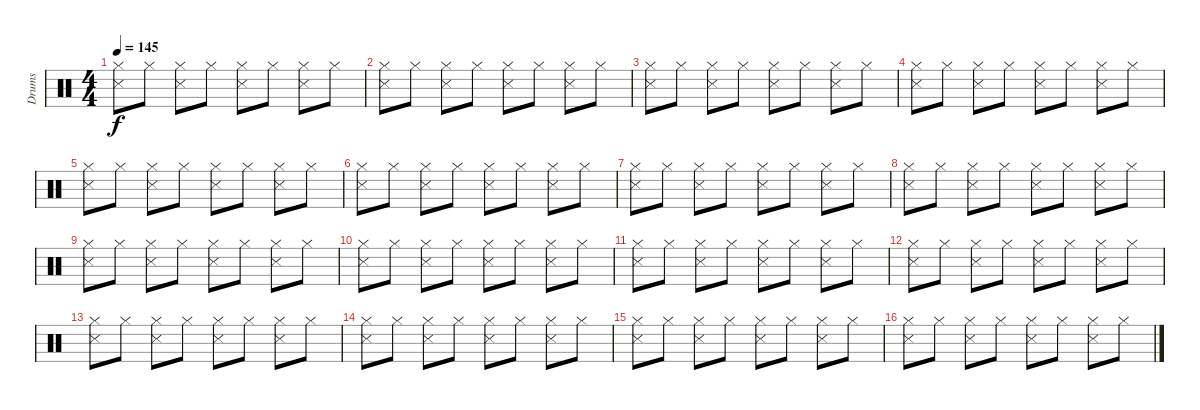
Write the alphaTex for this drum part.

\track ("Drums" "Drums") {instrument percussion}
\staff {score}
\articulation defaults
\ts (4 4)
\tempo 145
\clef neutral
\ks c
("Hi-Hat (closed)" "Snare (side stick) 3").8{dy f} "Hi-Hat (closed)".8 ("Hi-Hat (closed)" "Snare (side stick) 3").8 "Hi-Hat (closed)".8 ("Hi-Hat (closed)" "Snare (side stick) 3").8 "Hi-Hat (closed)".8 ("Hi-Hat (closed)" "Snare (side stick) 3").8 "Hi-Hat (closed)".8 |
("Hi-Hat (closed)" "Snare (side stick) 3").8 "Hi-Hat (closed)".8 ("Hi-Hat (closed)" "Snare (side stick) 3").8 "Hi-Hat (closed)".8 ("Hi-Hat (closed)" "Snare (side stick) 3").8 "Hi-Hat (closed)".8 ("Hi-Hat (closed)" "Snare (side stick) 3").8 "Hi-Hat (closed)".8 |
("Hi-Hat (closed)" "Snare (side stick) 3").8 "Hi-Hat (closed)".8 ("Hi-Hat (closed)" "Snare (side stick) 3").8 "Hi-Hat (closed)".8 ("Hi-Hat (closed)" "Snare (side stick) 3").8 "Hi-Hat (closed)".8 ("Hi-Hat (closed)" "Snare (side stick) 3").8 "Hi-Hat (closed)".8 |
("Hi-Hat (closed)" "Snare (side stick) 3").8 "Hi-Hat (closed)".8 ("Hi-Hat (closed)" "Snare (side stick) 3").8 "Hi-Hat (closed)".8 ("Hi-Hat (closed)" "Snare (side stick) 3").8 "Hi-Hat (closed)".8 ("Hi-Hat (closed)" "Snare (side stick) 3").8 "Hi-Hat (closed)".8 |
("Hi-Hat (closed)" "Snare (side stick) 3").8 "Hi-Hat (closed)".8 ("Hi-Hat (closed)" "Snare (side stick) 3").8 "Hi-Hat (closed)".8 ("Hi-Hat (closed)" "Snare (side stick) 3").8 "Hi-Hat (closed)".8 ("Hi-Hat (closed)" "Snare (side stick) 3").8 "Hi-Hat (closed)".8 |
("Hi-Hat (closed)" "Snare (side stick) 3").8 "Hi-Hat (closed)".8 ("Hi-Hat (closed)" "Snare (side stick) 3").8 "Hi-Hat (closed)".8 ("Hi-Hat (closed)" "Snare (side stick) 3").8 "Hi-Hat (closed)".8 ("Hi-Hat (closed)" "Snare (side stick) 3").8 "Hi-Hat (closed)".8 |
("Hi-Hat (closed)" "Snare (side stick) 3").8 "Hi-Hat (closed)".8 ("Hi-Hat (closed)" "Snare (side stick) 3").8 "Hi-Hat (closed)".8 ("Hi-Hat (closed)" "Snare (side stick) 3").8 "Hi-Hat (closed)".8 ("Hi-Hat (closed)" "Snare (side stick) 3").8 "Hi-Hat (closed)".8 |
("Hi-Hat (closed)" "Snare (side stick) 3").8 "Hi-Hat (closed)".8 ("Hi-Hat (closed)" "Snare (side stick) 3").8 "Hi-Hat (closed)".8 ("Hi-Hat (closed)" "Snare (side stick) 3").8 "Hi-Hat (closed)".8 ("Hi-Hat (closed)" "Snare (side stick) 3").8 "Hi-Hat (closed)".8 |
("Hi-Hat (closed)" "Snare (side stick) 3").8 "Hi-Hat (closed)".8 ("Hi-Hat (closed)" "Snare (side stick) 3").8 "Hi-Hat (closed)".8 ("Hi-Hat (closed)" "Snare (side stick) 3").8 "Hi-Hat (closed)".8 ("Hi-Hat (closed)" "Snare (side stick) 3").8 "Hi-Hat (closed)".8 |
("Hi-Hat (closed)" "Snare (side stick) 3").8 "Hi-Hat (closed)".8 ("Hi-Hat (closed)" "Snare (side stick) 3").8 "Hi-Hat (closed)".8 ("Hi-Hat (closed)" "Snare (side stick) 3").8 "Hi-Hat (closed)".8 ("Hi-Hat (closed)" "Snare (side stick) 3").8 "Hi-Hat (closed)".8 |
("Hi-Hat (closed)" "Snare (side stick) 3").8 "Hi-Hat (closed)".8 ("Hi-Hat (closed)" "Snare (side stick) 3").8 "Hi-Hat (closed)".8 ("Hi-Hat (closed)" "Snare (side stick) 3").8 "Hi-Hat (closed)".8 ("Hi-Hat (closed)" "Snare (side stick) 3").8 "Hi-Hat (closed)".8 |
("Hi-Hat (closed)" "Snare (side stick) 3").8 "Hi-Hat (closed)".8 ("Hi-Hat (closed)" "Snare (side stick) 3").8 "Hi-Hat (closed)".8 ("Hi-Hat (closed)" "Snare (side stick) 3").8 "Hi-Hat (closed)".8 ("Hi-Hat (closed)" "Snare (side stick) 3").8 "Hi-Hat (closed)".8 |
("Hi-Hat (closed)" "Snare (side stick) 3").8 "Hi-Hat (closed)".8 ("Hi-Hat (closed)" "Snare (side stick) 3").8 "Hi-Hat (closed)".8 ("Hi-Hat (closed)" "Snare (side stick) 3").8 "Hi-Hat (closed)".8 ("Hi-Hat (closed)" "Snare (side stick) 3").8 "Hi-Hat (closed)".8 |
("Hi-Hat (closed)" "Snare (side stick) 3").8 "Hi-Hat (closed)".8 ("Hi-Hat (closed)" "Snare (side stick) 3").8 "Hi-Hat (closed)".8 ("Hi-Hat (closed)" "Snare (side stick) 3").8 "Hi-Hat (closed)".8 ("Hi-Hat (closed)" "Snare (side stick) 3").8 "Hi-Hat (closed)".8 |
("Hi-Hat (closed)" "Snare (side stick) 3").8 "Hi-Hat (closed)".8 ("Hi-Hat (closed)" "Snare (side stick) 3").8 "Hi-Hat (closed)".8 ("Hi-Hat (closed)" "Snare (side stick) 3").8 "Hi-Hat (closed)".8 ("Hi-Hat (closed)" "Snare (side stick) 3").8 "Hi-Hat (closed)".8 |
("Hi-Hat (closed)" "Snare (side stick) 3").8 "Hi-Hat (closed)".8 ("Hi-Hat (closed)" "Snare (side stick) 3").8 "Hi-Hat (closed)".8 ("Hi-Hat (closed)" "Snare (side stick) 3").8 "Hi-Hat (closed)".8 ("Hi-Hat (closed)" "Snare (side stick) 3").8 "Hi-Hat (closed)".8
